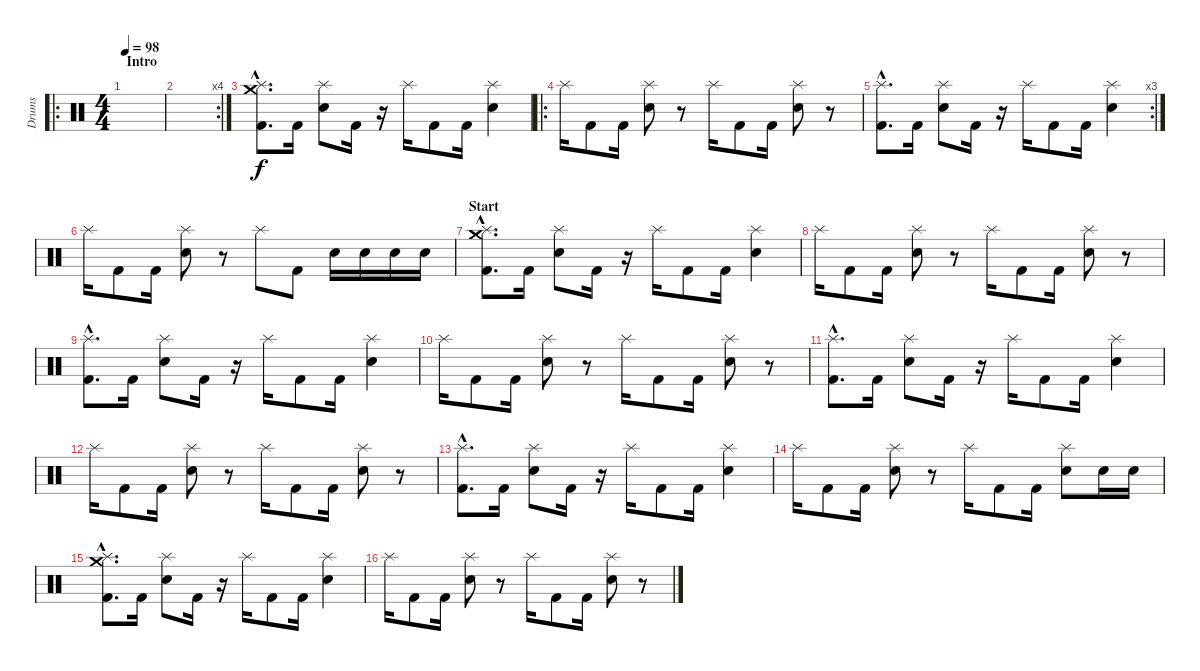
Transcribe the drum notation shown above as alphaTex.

\track ("Drums" "Drums") {instrument percussion}
\staff {score}
\articulation defaults
\ro
\ts (4 4)
\section ("" "Intro")
\tempo 98
\clef neutral
\ks c
|
\rc 4
|
("Splash (hit)"{hac} "Crash medium (hit)"{hac} "Kick (hit) 2"{hac}).8{d} "Kick (hit) 2".16 ("Splash (hit)" "Snare (hit) 2").8 "Kick (hit) 2".16 r.16 "Splash (hit)".16 "Kick (hit) 2".8 "Kick (hit) 2".16 ("Splash (hit)" "Snare (hit) 2").4 |
\ro "Splash (hit)".16 "Kick (hit) 2".8 "Kick (hit) 2".16
("Splash (hit)" "Snare (hit) 2").8 r.8 "Splash (hit)".16 "Kick (hit) 2".8 "Kick (hit) 2".16 ("Splash (hit)" "Snare (hit) 2").8 r.8 |
\rc 3
("Splash (hit)"{hac} "Kick (hit) 2"{hac}).8{d} "Kick (hit) 2".16 ("Splash (hit)" "Snare (hit) 2").8 "Kick (hit) 2".16 r.16 "Splash (hit)".16 "Kick (hit) 2".8 "Kick (hit) 2".16 ("Splash (hit)" "Snare (hit) 2").4 |
"Splash (hit)".16 "Kick (hit) 2".8 "Kick (hit) 2".16 ("Splash (hit)" "Snare (hit) 2").8 r.8 "Splash (hit)".8 "Kick (hit) 2".8 "Snare (hit) 2".16 "Snare (hit) 2".16 "Snare (hit) 2".16 "Snare (hit) 2".16 |
\section ("" "Start")
("Splash (hit)"{hac} "Crash medium (hit)"{hac} "Kick (hit) 2"{hac}).8{d} "Kick (hit) 2".16 ("Splash (hit)" "Snare (hit) 2").8 "Kick (hit) 2".16 r.16 "Splash (hit)".16 "Kick (hit) 2".8 "Kick (hit) 2".16 ("Splash (hit)" "Snare (hit) 2").4 |
"Splash (hit)".16 "Kick (hit) 2".8 "Kick (hit) 2".16 ("Splash (hit)" "Snare (hit) 2").8 r.8 "Splash (hit)".16 "Kick (hit) 2".8 "Kick (hit) 2".16 ("Splash (hit)" "Snare (hit) 2").8 r.8 |
("Splash (hit)"{hac} "Kick (hit) 2"{hac}).8{d} "Kick (hit) 2".16 ("Splash (hit)" "Snare (hit) 2").8 "Kick (hit) 2".16 r.16 "Splash (hit)".16 "Kick (hit) 2".8 "Kick (hit) 2".16 ("Splash (hit)" "Snare (hit) 2").4 |
"Splash (hit)".16 "Kick (hit) 2".8 "Kick (hit) 2".16 ("Splash (hit)" "Snare (hit) 2").8 r.8 "Splash (hit)".16 "Kick (hit) 2".8 "Kick (hit) 2".16 ("Splash (hit)" "Snare (hit) 2").8 r.8 |
("Splash (hit)"{hac} "Kick (hit) 2"{hac}).8{d} "Kick (hit) 2".16 ("Splash (hit)" "Snare (hit) 2").8 "Kick (hit) 2".16 r.16 "Splash (hit)".16 "Kick (hit) 2".8 "Kick (hit) 2".16 ("Splash (hit)" "Snare (hit) 2").4 |
"Splash (hit)".16 "Kick (hit) 2".8 "Kick (hit) 2".16 ("Splash (hit)" "Snare (hit) 2").8 r.8 "Splash (hit)".16 "Kick (hit) 2".8 "Kick (hit) 2".16 ("Splash (hit)" "Snare (hit) 2").8 r.8 |
("Splash (hit)"{hac} "Kick (hit) 2"{hac}).8{d} "Kick (hit) 2".16 ("Splash (hit)" "Snare (hit) 2").8 "Kick (hit) 2".16 r.16 "Splash (hit)".16 "Kick (hit) 2".8 "Kick (hit) 2".16 ("Splash (hit)" "Snare (hit) 2").4 |
"Splash (hit)".16 "Kick (hit) 2".8 "Kick (hit) 2".16 ("Splash (hit)" "Snare (hit) 2").8 r.8 "Splash (hit)".16 "Kick (hit) 2".8 "Kick (hit) 2".16 ("Splash (hit)" "Snare (hit) 2").8 "Snare (hit) 2".16 "Snare (hit) 2".16 |
("Splash (hit)"{hac} "Crash medium (hit)"{hac} "Kick (hit) 2"{hac}).8{d} "Kick (hit) 2".16 ("Splash (hit)" "Snare (hit) 2").8 "Kick (hit) 2".16 r.16 "Splash (hit)".16 "Kick (hit) 2".8 "Kick (hit) 2".16 ("Splash (hit)" "Snare (hit) 2").4 |
"Splash (hit)".16 "Kick (hit) 2".8 "Kick (hit) 2".16 ("Splash (hit)" "Snare (hit) 2").8 r.8 "Splash (hit)".16 "Kick (hit) 2".8 "Kick (hit) 2".16 ("Splash (hit)" "Snare (hit) 2").8 r.8
